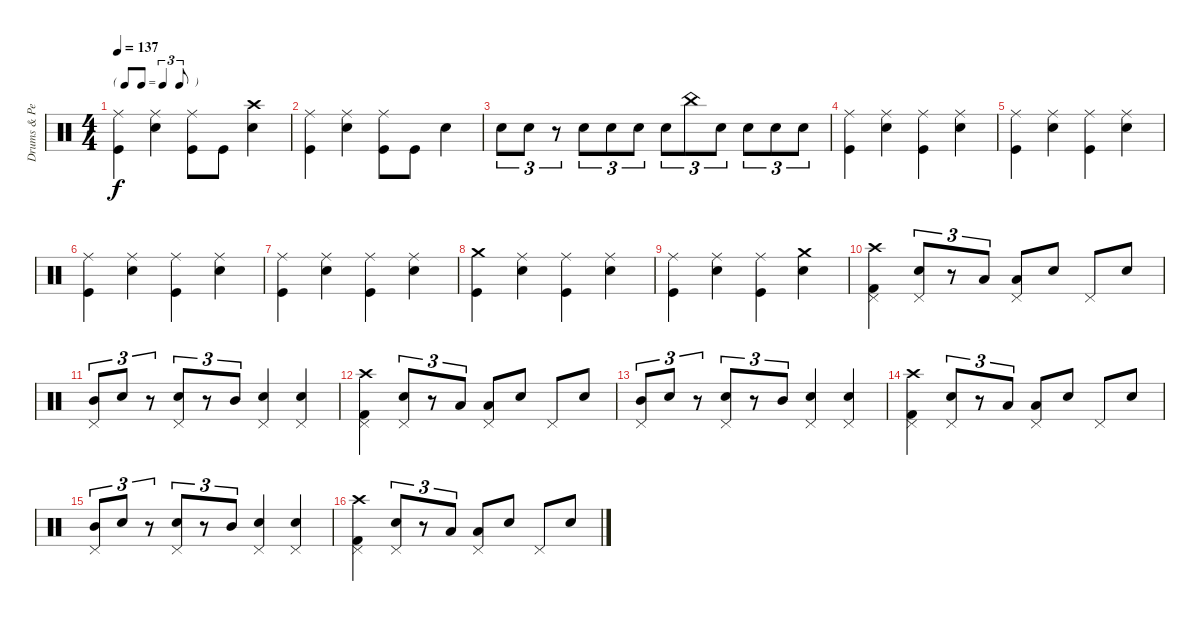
\track ("Drums & Percussion (Matt)" "Drums & Pe") {instrument percussion}
\staff {score}
\articulation defaults
\ts (4 4)
\tf triplet8th
\tempo 137
\clef neutral
\ks c
("Ride (middle)" "Kick (hit)").4{dy f} ("Ride (middle)" "Electric Snare (hit)").4 ("Ride (middle)" "Kick (hit)").8 "Kick (hit)".8 ("Crash high (hit)" "Electric Snare (hit)").4 |
("Ride (middle)" "Kick (hit)").4 ("Ride (middle)" "Electric Snare (hit)").4 ("Ride (middle)" "Kick (hit)").8 "Kick (hit)".8 "Electric Snare (hit)".4 |
"Electric Snare (hit)".8{tu (3 2)} "Electric Snare (hit)".8{tu (3 2)} r.8{tu (3 2)} "Electric Snare (hit)".8{tu (3 2)} "Electric Snare (hit)".8{tu (3 2)} "Electric Snare (hit)".8{tu (3 2)} "Electric Snare (hit)".8{tu (3 2)} "China (hit)".8{tu (3 2)} "Electric Snare (hit)".8{tu (3 2)} "Electric Snare (hit)".8{tu (3 2)} "Electric Snare (hit)".8{tu (3 2)} "Electric Snare (hit)".8{tu (3 2)} |
("Ride (middle)" "Kick (hit)").4 ("Ride (middle)" "Electric Snare (hit)").4 ("Ride (middle)" "Kick (hit)").4 ("Ride (middle)" "Electric Snare (hit)").4 |
("Ride (middle)" "Kick (hit)").4 ("Ride (middle)" "Electric Snare (hit)").4 ("Ride (middle)" "Kick (hit)").4 ("Electric Snare (hit)" "Ride (middle)").4 |
("Ride (middle)" "Kick (hit)").4 ("Ride (middle)" "Electric Snare (hit)").4 ("Ride (middle)" "Kick (hit)").4 ("Ride (middle)" "Electric Snare (hit)").4 |
("Ride (middle)" "Kick (hit)").4 ("Ride (middle)" "Electric Snare (hit)").4 ("Ride (middle)" "Kick (hit)").4 ("Ride (middle)" "Electric Snare (hit)").4 |
("Crash medium (hit)" "Kick (hit)").4 ("Ride (middle)" "Electric Snare (hit)").4 ("Ride (middle)" "Kick (hit)").4 ("Ride (middle)" "Electric Snare (hit)").4 |
("Ride (middle)" "Kick (hit)").4 ("Ride (middle)" "Electric Snare (hit)").4 ("Ride (middle)" "Kick (hit)").4 ("Electric Snare (hit)" "Crash medium (hit)").4 |
("Crash high (hit)" "Kick (hit) 2" "Pedal Hi-Hat (hit)").4 ("Electric Snare (hit)" "Pedal Hi-Hat (hit)").8{tu (3 2)} r.8{tu (3 2)} "Low Tom (hit)".8{tu (3 2)} ("Low Tom (hit)" "Pedal Hi-Hat (hit)").8 "Electric Snare (hit)".8 "Pedal Hi-Hat (hit)".8 "Electric Snare (hit)".8 |
("Mid Tom (hit)" "Pedal Hi-Hat (hit)").8{tu (3 2)} "Electric Snare (hit)".8{tu (3 2)} r.8{tu (3 2)} ("Electric Snare (hit)" "Pedal Hi-Hat (hit)").8{tu (3 2)} r.8{tu (3 2)} "Mid Tom (hit)".8{tu (3 2)} ("Electric Snare (hit)" "Pedal Hi-Hat (hit)").4 ("Electric Snare (hit)" "Pedal Hi-Hat (hit)").4 |
("Crash high (hit)" "Kick (hit) 2" "Pedal Hi-Hat (hit)").4 ("Electric Snare (hit)" "Pedal Hi-Hat (hit)").8{tu (3 2)} r.8{tu (3 2)} "Low Tom (hit)".8{tu (3 2)} ("Low Tom (hit)" "Pedal Hi-Hat (hit)").8 "Electric Snare (hit)".8 "Pedal Hi-Hat (hit)".8 "Electric Snare (hit)".8 |
("Mid Tom (hit)" "Pedal Hi-Hat (hit)").8{tu (3 2)} "Electric Snare (hit)".8{tu (3 2)} r.8{tu (3 2)} ("Electric Snare (hit)" "Pedal Hi-Hat (hit)").8{tu (3 2)} r.8{tu (3 2)} "Mid Tom (hit)".8{tu (3 2)} ("Electric Snare (hit)" "Pedal Hi-Hat (hit)").4 ("Electric Snare (hit)" "Pedal Hi-Hat (hit)").4 |
("Crash high (hit)" "Kick (hit) 2" "Pedal Hi-Hat (hit)").4 ("Electric Snare (hit)" "Pedal Hi-Hat (hit)").8{tu (3 2)} r.8{tu (3 2)} "Low Tom (hit)".8{tu (3 2)} ("Low Tom (hit)" "Pedal Hi-Hat (hit)").8 "Electric Snare (hit)".8 "Pedal Hi-Hat (hit)".8 "Electric Snare (hit)".8 |
("Mid Tom (hit)" "Pedal Hi-Hat (hit)").8{tu (3 2)} "Electric Snare (hit)".8{tu (3 2)} r.8{tu (3 2)} ("Electric Snare (hit)" "Pedal Hi-Hat (hit)").8{tu (3 2)} r.8{tu (3 2)} "Mid Tom (hit)".8{tu (3 2)} ("Electric Snare (hit)" "Pedal Hi-Hat (hit)").4 ("Electric Snare (hit)" "Pedal Hi-Hat (hit)").4 |
("Crash high (hit)" "Kick (hit) 2" "Pedal Hi-Hat (hit)").4 ("Electric Snare (hit)" "Pedal Hi-Hat (hit)").8{tu (3 2)} r.8{tu (3 2)} "Low Tom (hit)".8{tu (3 2)} ("Low Tom (hit)" "Pedal Hi-Hat (hit)").8 "Electric Snare (hit)".8 "Pedal Hi-Hat (hit)".8 "Electric Snare (hit)".8
